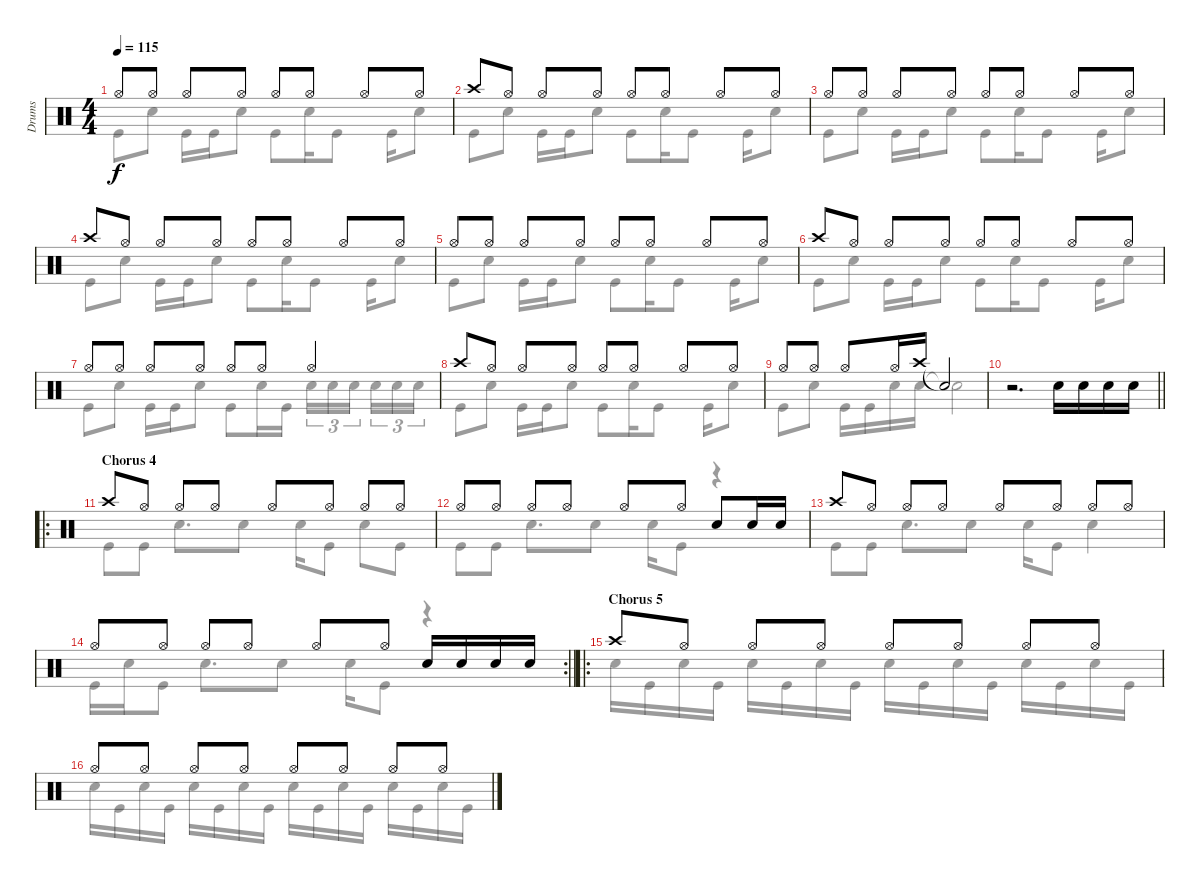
\track ("Drums" "Drums") {instrument percussion}
\staff {score}
\articulation defaults
\voice
\ts (4 4)
\tempo 115
\clef neutral
\ks c "Hi-Hat (open)".8{dy f} "Hi-Hat (open)".8 "Hi-Hat (open)".8 "Hi-Hat (open)".8 "Hi-Hat (open)".8 "Hi-Hat (open)".8 "Hi-Hat (open)".8 "Hi-Hat (open)".8
|
"Crash high (hit)".8 "Hi-Hat (open)".8 "Hi-Hat (open)".8 "Hi-Hat (open)".8 "Hi-Hat (open)".8 "Hi-Hat (open)".8 "Hi-Hat (open)".8 "Hi-Hat (open)".8 |
"Hi-Hat (open)".8 "Hi-Hat (open)".8 "Hi-Hat (open)".8 "Hi-Hat (open)".8 "Hi-Hat (open)".8 "Hi-Hat (open)".8 "Hi-Hat (open)".8 "Hi-Hat (open)".8 |
"Crash high (hit)".8 "Hi-Hat (open)".8 "Hi-Hat (open)".8 "Hi-Hat (open)".8 "Hi-Hat (open)".8 "Hi-Hat (open)".8 "Hi-Hat (open)".8 "Hi-Hat (open)".8 |
"Hi-Hat (open)".8 "Hi-Hat (open)".8 "Hi-Hat (open)".8 "Hi-Hat (open)".8 "Hi-Hat (open)".8 "Hi-Hat (open)".8 "Hi-Hat (open)".8 "Hi-Hat (open)".8 |
"Crash high (hit)".8 "Hi-Hat (open)".8 "Hi-Hat (open)".8 "Hi-Hat (open)".8 "Hi-Hat (open)".8 "Hi-Hat (open)".8 "Hi-Hat (open)".8 "Hi-Hat (open)".8 |
"Hi-Hat (open)".8 "Hi-Hat (open)".8 "Hi-Hat (open)".8 "Hi-Hat (open)".8 "Hi-Hat (open)".8 "Hi-Hat (open)".8 "Hi-Hat (open)".4 |
"Crash high (hit)".8 "Hi-Hat (open)".8 "Hi-Hat (open)".8 "Hi-Hat (open)".8 "Hi-Hat (open)".8 "Hi-Hat (open)".8 "Hi-Hat (open)".8 "Hi-Hat (open)".8 |
"Hi-Hat (open)".8 "Hi-Hat (open)".8 "Hi-Hat (open)".8 "Hi-Hat (open)".16 "Crash high (hit)".16 "Snare (hit)"{t}.2 |
\barLineRight lightlight
r.2{d} "Electric Snare (hit)".16 "Electric Snare (hit)".16 "Electric Snare (hit)".16 "Electric Snare (hit)".16 |
\ro
\section ("" "Chorus 4")
"Crash high (hit)".8 "Hi-Hat (open)".8 "Hi-Hat (open)".8 "Hi-Hat (open)".8 "Hi-Hat (open)".8 "Hi-Hat (open)".8 "Hi-Hat (open)".8 "Hi-Hat (open)".8 |
"Hi-Hat (open)".8 "Hi-Hat (open)".8 "Hi-Hat (open)".8 "Hi-Hat (open)".8 "Hi-Hat (open)".8 "Hi-Hat (open)".8 "Electric Snare (hit)".8 "Electric Snare (hit)".16 "Electric Snare (hit)".16 |
"Crash high (hit)".8 "Hi-Hat (open)".8 "Hi-Hat (open)".8 "Hi-Hat (open)".8 "Hi-Hat (open)".8 "Hi-Hat (open)".8 "Hi-Hat (open)".8 "Hi-Hat (open)".8 |
\rc 2
\barLineRight lightlight "Hi-Hat (open)".8 "Hi-Hat (open)".8 "Hi-Hat (open)".8 "Hi-Hat (open)".8 "Hi-Hat (open)".8 "Hi-Hat (open)".8 "Electric Snare (hit)".16 "Electric Snare (hit)".16 "Electric Snare (hit)".16 "Electric Snare (hit)".16
|
\ro
\section ("" "Chorus 5")
"Crash high (hit)".8 "Hi-Hat (open)".8 "Hi-Hat (open)".8 "Hi-Hat (open)".8 "Hi-Hat (open)".8 "Hi-Hat (open)".8 "Hi-Hat (open)".8 "Hi-Hat (open)".8 |
"Hi-Hat (open)".8 "Hi-Hat (open)".8 "Hi-Hat (open)".8 "Hi-Hat (open)".8 "Hi-Hat (open)".8 "Hi-Hat (open)".8 "Hi-Hat (open)".8 "Hi-Hat (open)".8
\voice
\clef neutral
\ottava regular
\simile none
\ks c "Kick (hit)".8{dy f} "Electric Snare (hit)".8 "Kick (hit)".16 "Kick (hit)".16 "Electric Snare (hit)".8 "Kick (hit)".8 "Electric Snare (hit)".16 "Kick (hit)".8 "Kick (hit)".16 "Electric Snare (hit)".8
|
"Kick (hit)".8 "Electric Snare (hit)".8 "Kick (hit)".16 "Kick (hit)".16 "Electric Snare (hit)".8 "Kick (hit)".8 "Electric Snare (hit)".16 "Kick (hit)".8 "Kick (hit)".16 "Electric Snare (hit)".8 |
"Kick (hit)".8 "Electric Snare (hit)".8 "Kick (hit)".16 "Kick (hit)".16 "Electric Snare (hit)".8 "Kick (hit)".8 "Electric Snare (hit)".16 "Kick (hit)".8 "Kick (hit)".16 "Electric Snare (hit)".8 |
"Kick (hit)".8 "Electric Snare (hit)".8 "Kick (hit)".16 "Kick (hit)".16 "Electric Snare (hit)".8 "Kick (hit)".8 "Electric Snare (hit)".16 "Kick (hit)".8 "Kick (hit)".16 "Electric Snare (hit)".8 |
"Kick (hit)".8 "Electric Snare (hit)".8 "Kick (hit)".16 "Kick (hit)".16 "Electric Snare (hit)".8 "Kick (hit)".8 "Electric Snare (hit)".16 "Kick (hit)".8 "Kick (hit)".16 "Electric Snare (hit)".8 |
"Kick (hit)".8 "Electric Snare (hit)".8 "Kick (hit)".16 "Kick (hit)".16 "Electric Snare (hit)".8 "Kick (hit)".8 "Electric Snare (hit)".16 "Kick (hit)".8 "Kick (hit)".16 "Electric Snare (hit)".8 |
"Kick (hit)".8 "Electric Snare (hit)".8 "Kick (hit)".16 "Kick (hit)".16 "Electric Snare (hit)".8 "Kick (hit)".8 "Electric Snare (hit)".16 "Kick (hit)".16 "Electric Snare (hit)".16{tu (3 2)} "Electric Snare (hit)".16{tu (3 2)} "Electric Snare (hit)".16{tu (3 2) beam splitsecondary} "Electric Snare (hit)".16{tu (3 2)} "Electric Snare (hit)".16{tu (3 2)} "Electric Snare (hit)".16{tu (3 2)} |
"Kick (hit)".8 "Electric Snare (hit)".8 "Kick (hit)".16 "Kick (hit)".16 "Electric Snare (hit)".8 "Kick (hit)".8 "Electric Snare (hit)".16 "Kick (hit)".8 "Kick (hit)".16 "Electric Snare (hit)".8 |
"Kick (hit)".8 "Electric Snare (hit)".8 "Kick (hit)".16 "Kick (hit)".16 "Electric Snare (hit)".16 "Electric Snare (hit)".16 "Snare (hit)"{t}.2 |
\barLineRight lightlight
|
"Kick (hit)".8 "Kick (hit)".8 "Electric Snare (hit)".8{d} "Electric Snare (hit)".8 "Electric Snare (hit)".16 "Kick (hit)".8 "Electric Snare (hit)".8 "Kick (hit)".8 |
"Kick (hit)".8 "Kick (hit)".8 "Electric Snare (hit)".8{d} "Electric Snare (hit)".8 "Electric Snare (hit)".16 "Kick (hit)".8 r.4 |
"Kick (hit)".8 "Kick (hit)".8 "Electric Snare (hit)".8{d} "Electric Snare (hit)".8 "Electric Snare (hit)".16 "Kick (hit)".8 "Electric Snare (hit)".4 |
\barLineRight lightlight "Kick (hit)".16 "Electric Snare (hit)".16 "Kick (hit)".8 "Electric Snare (hit)".8{d} "Electric Snare (hit)".8 "Electric Snare (hit)".16 "Kick (hit)".8
r.4 |
"Electric Snare (hit)".16 "Kick (hit)".16 "Electric Snare (hit)".16 "Kick (hit)".16 "Electric Snare (hit)".16 "Kick (hit)".16 "Electric Snare (hit)".16 "Kick (hit)".16 "Electric Snare (hit)".16 "Kick (hit)".16 "Electric Snare (hit)".16 "Kick (hit)".16 "Electric Snare (hit)".16 "Kick (hit)".16 "Electric Snare (hit)".16 "Kick (hit)".16 |
"Electric Snare (hit)".16 "Kick (hit)".16 "Electric Snare (hit)".16 "Kick (hit)".16 "Electric Snare (hit)".16 "Kick (hit)".16 "Electric Snare (hit)".16 "Kick (hit)".16 "Electric Snare (hit)".16 "Kick (hit)".16 "Electric Snare (hit)".16 "Kick (hit)".16 "Electric Snare (hit)".16 "Kick (hit)".16 "Electric Snare (hit)".16 "Kick (hit)".16
